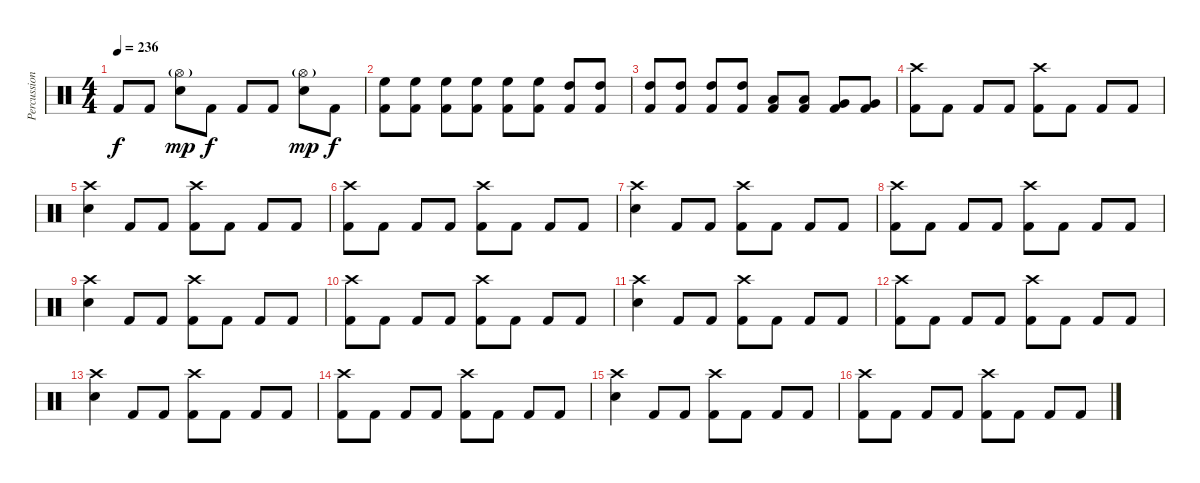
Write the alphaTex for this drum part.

\track ("Percussion" "Percussion") {instrument percussion}
\staff {score}
\articulation defaults
\ts (4 4)
\tempo 236
\clef neutral
\ks c "Kick (hit) 2".8{dy f} "Kick (hit) 2".8
("Hi-Hat (open)"{g} "Electric Snare (hit)").8{dy mp} "Kick (hit) 2".8{dy f} "Kick (hit) 2".8 "Kick (hit) 2".8 ("Hi-Hat (open)"{g} "Electric Snare (hit)").8{dy mp} "Kick (hit) 2".8{dy f} |
("High Floor Tom (hit)" "Kick (hit) 2").8 ("High Floor Tom (hit)" "Kick (hit) 2").8 ("High Floor Tom (hit)" "Kick (hit) 2").8 ("High Floor Tom (hit)" "Kick (hit) 2").8 ("High Floor Tom (hit)" "Kick (hit) 2").8 ("High Floor Tom (hit)" "Kick (hit) 2").8 ("High Tom (hit)" "Kick (hit) 2").8 ("High Tom (hit)" "Kick (hit) 2").8 |
("High Tom (hit)" "Kick (hit) 2").8 ("High Tom (hit)" "Kick (hit) 2").8 ("High Tom (hit)" "Kick (hit) 2").8 ("High Tom (hit)" "Kick (hit) 2").8 ("Low Tom (hit)" "Kick (hit) 2").8 ("Low Tom (hit)" "Kick (hit) 2").8 ("Very Low Tom (hit)" "Kick (hit) 2").8 ("Very Low Tom (hit)" "Kick (hit) 2").8 |
("Crash high (hit)" "Kick (hit) 2").8 "Kick (hit) 2".8 "Kick (hit) 2".8 "Kick (hit) 2".8 ("Crash high (hit)" "Kick (hit) 2").8 "Kick (hit) 2".8 "Kick (hit) 2".8 "Kick (hit) 2".8 |
("Crash high (hit)" "Electric Snare (hit)").4 "Kick (hit) 2".8 "Kick (hit) 2".8 ("Crash high (hit)" "Kick (hit) 2").8 "Kick (hit) 2".8 "Kick (hit) 2".8 "Kick (hit) 2".8 |
("Crash high (hit)" "Kick (hit) 2").8 "Kick (hit) 2".8 "Kick (hit) 2".8 "Kick (hit) 2".8 ("Crash high (hit)" "Kick (hit) 2").8 "Kick (hit) 2".8 "Kick (hit) 2".8 "Kick (hit) 2".8 |
("Crash high (hit)" "Electric Snare (hit)").4 "Kick (hit) 2".8 "Kick (hit) 2".8 ("Crash high (hit)" "Kick (hit) 2").8 "Kick (hit) 2".8 "Kick (hit) 2".8 "Kick (hit) 2".8 |
("Crash high (hit)" "Kick (hit) 2").8 "Kick (hit) 2".8 "Kick (hit) 2".8 "Kick (hit) 2".8 ("Crash high (hit)" "Kick (hit) 2").8 "Kick (hit) 2".8 "Kick (hit) 2".8 "Kick (hit) 2".8 |
("Crash high (hit)" "Electric Snare (hit)").4 "Kick (hit) 2".8 "Kick (hit) 2".8 ("Crash high (hit)" "Kick (hit) 2").8 "Kick (hit) 2".8 "Kick (hit) 2".8 "Kick (hit) 2".8 |
("Crash high (hit)" "Kick (hit) 2").8 "Kick (hit) 2".8 "Kick (hit) 2".8 "Kick (hit) 2".8 ("Crash high (hit)" "Kick (hit) 2").8 "Kick (hit) 2".8 "Kick (hit) 2".8 "Kick (hit) 2".8 |
("Crash high (hit)" "Electric Snare (hit)").4 "Kick (hit) 2".8 "Kick (hit) 2".8 ("Crash high (hit)" "Kick (hit) 2").8 "Kick (hit) 2".8 "Kick (hit) 2".8 "Kick (hit) 2".8 |
("Crash high (hit)" "Kick (hit) 2").8 "Kick (hit) 2".8 "Kick (hit) 2".8 "Kick (hit) 2".8 ("Crash high (hit)" "Kick (hit) 2").8 "Kick (hit) 2".8 "Kick (hit) 2".8 "Kick (hit) 2".8 |
("Crash high (hit)" "Electric Snare (hit)").4 "Kick (hit) 2".8 "Kick (hit) 2".8 ("Crash high (hit)" "Kick (hit) 2").8 "Kick (hit) 2".8 "Kick (hit) 2".8 "Kick (hit) 2".8 |
("Crash high (hit)" "Kick (hit) 2").8 "Kick (hit) 2".8 "Kick (hit) 2".8 "Kick (hit) 2".8 ("Crash high (hit)" "Kick (hit) 2").8 "Kick (hit) 2".8 "Kick (hit) 2".8 "Kick (hit) 2".8 |
("Crash high (hit)" "Electric Snare (hit)").4 "Kick (hit) 2".8 "Kick (hit) 2".8 ("Crash high (hit)" "Kick (hit) 2").8 "Kick (hit) 2".8 "Kick (hit) 2".8 "Kick (hit) 2".8 |
("Crash high (hit)" "Kick (hit) 2").8 "Kick (hit) 2".8 "Kick (hit) 2".8 "Kick (hit) 2".8 ("Crash high (hit)" "Kick (hit) 2").8 "Kick (hit) 2".8 "Kick (hit) 2".8 "Kick (hit) 2".8
